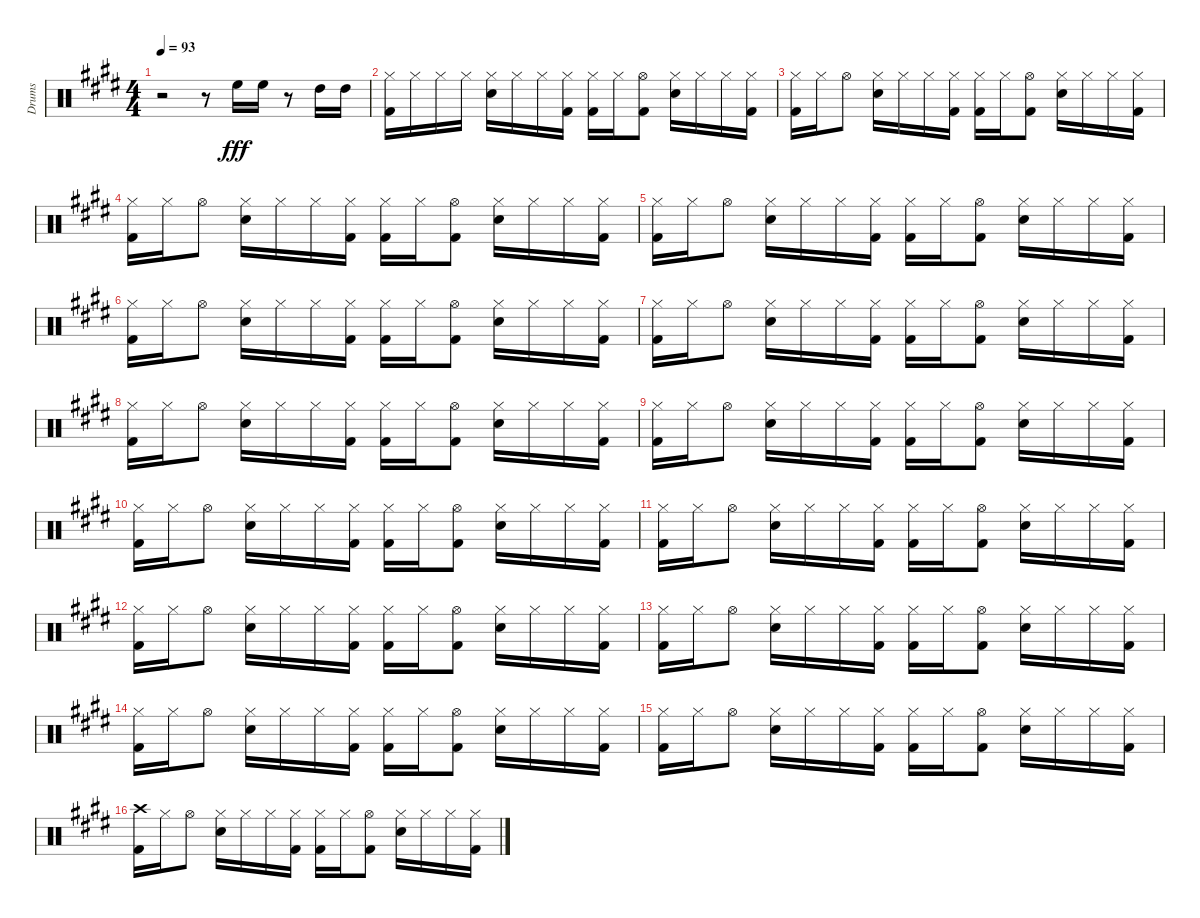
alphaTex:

\track ("Drums" "Drums") {instrument percussion}
\staff {score}
\articulation defaults
\ts (4 4)
\tempo 93
\clef neutral
\ks e
r.2{dy fff} r.8 "High Floor Tom (hit)".16 "High Floor Tom (hit)".16 r.8 "High Tom (hit)".16 "High Tom (hit)".16 |
("Hi-Hat (closed)" "Kick (hit) 2").16 "Hi-Hat (closed)".16 "Hi-Hat (closed)".16 "Hi-Hat (closed)".16 ("Hi-Hat (closed)" "Electric Snare (hit)").16 "Hi-Hat (closed)".16 "Hi-Hat (closed)".16 ("Hi-Hat (closed)" "Kick (hit) 2").16 ("Hi-Hat (closed)" "Kick (hit) 2").16 "Hi-Hat (closed)".16 ("Hi-Hat (open)" "Kick (hit) 2").8 ("Hi-Hat (closed)" "Electric Snare (hit)").16 "Hi-Hat (closed)".16 "Hi-Hat (closed)".16 ("Hi-Hat (closed)" "Kick (hit) 2").16 |
("Hi-Hat (closed)" "Kick (hit) 2").16 "Hi-Hat (closed)".16 "Hi-Hat (open)".8 ("Hi-Hat (closed)" "Electric Snare (hit)").16 "Hi-Hat (closed)".16 "Hi-Hat (closed)".16 ("Hi-Hat (closed)" "Kick (hit) 2").16 ("Hi-Hat (closed)" "Kick (hit) 2").16 "Hi-Hat (closed)".16 ("Hi-Hat (open)" "Kick (hit) 2").8 ("Hi-Hat (closed)" "Electric Snare (hit)").16 "Hi-Hat (closed)".16 "Hi-Hat (closed)".16 ("Hi-Hat (closed)" "Kick (hit) 2").16 |
("Hi-Hat (closed)" "Kick (hit) 2").16 "Hi-Hat (closed)".16 "Hi-Hat (open)".8 ("Hi-Hat (closed)" "Electric Snare (hit)").16 "Hi-Hat (closed)".16 "Hi-Hat (closed)".16 ("Hi-Hat (closed)" "Kick (hit) 2").16 ("Hi-Hat (closed)" "Kick (hit) 2").16 "Hi-Hat (closed)".16 ("Hi-Hat (open)" "Kick (hit) 2").8 ("Hi-Hat (closed)" "Electric Snare (hit)").16 "Hi-Hat (closed)".16 "Hi-Hat (closed)".16 ("Hi-Hat (closed)" "Kick (hit) 2").16 |
("Hi-Hat (closed)" "Kick (hit) 2").16 "Hi-Hat (closed)".16 "Hi-Hat (open)".8 ("Hi-Hat (closed)" "Electric Snare (hit)").16 "Hi-Hat (closed)".16 "Hi-Hat (closed)".16 ("Hi-Hat (closed)" "Kick (hit) 2").16 ("Hi-Hat (closed)" "Kick (hit) 2").16 "Hi-Hat (closed)".16 ("Hi-Hat (open)" "Kick (hit) 2").8 ("Hi-Hat (closed)" "Electric Snare (hit)").16 "Hi-Hat (closed)".16 "Hi-Hat (closed)".16 ("Hi-Hat (closed)" "Kick (hit) 2").16 |
("Hi-Hat (closed)" "Kick (hit) 2").16 "Hi-Hat (closed)".16 "Hi-Hat (open)".8 ("Hi-Hat (closed)" "Electric Snare (hit)").16 "Hi-Hat (closed)".16 "Hi-Hat (closed)".16 ("Hi-Hat (closed)" "Kick (hit) 2").16 ("Hi-Hat (closed)" "Kick (hit) 2").16 "Hi-Hat (closed)".16 ("Hi-Hat (open)" "Kick (hit) 2").8 ("Hi-Hat (closed)" "Electric Snare (hit)").16 "Hi-Hat (closed)".16 "Hi-Hat (closed)".16 ("Hi-Hat (closed)" "Kick (hit) 2").16 |
("Hi-Hat (closed)" "Kick (hit) 2").16 "Hi-Hat (closed)".16 "Hi-Hat (open)".8 ("Hi-Hat (closed)" "Electric Snare (hit)").16 "Hi-Hat (closed)".16 "Hi-Hat (closed)".16 ("Hi-Hat (closed)" "Kick (hit) 2").16 ("Hi-Hat (closed)" "Kick (hit) 2").16 "Hi-Hat (closed)".16 ("Hi-Hat (open)" "Kick (hit) 2").8 ("Hi-Hat (closed)" "Electric Snare (hit)").16 "Hi-Hat (closed)".16 "Hi-Hat (closed)".16 ("Hi-Hat (closed)" "Kick (hit) 2").16 |
("Hi-Hat (closed)" "Kick (hit) 2").16 "Hi-Hat (closed)".16 "Hi-Hat (open)".8 ("Hi-Hat (closed)" "Electric Snare (hit)").16 "Hi-Hat (closed)".16 "Hi-Hat (closed)".16 ("Hi-Hat (closed)" "Kick (hit) 2").16 ("Hi-Hat (closed)" "Kick (hit) 2").16 "Hi-Hat (closed)".16 ("Hi-Hat (open)" "Kick (hit) 2").8 ("Hi-Hat (closed)" "Electric Snare (hit)").16 "Hi-Hat (closed)".16 "Hi-Hat (closed)".16 ("Hi-Hat (closed)" "Kick (hit) 2").16 |
("Hi-Hat (closed)" "Kick (hit) 2").16 "Hi-Hat (closed)".16 "Hi-Hat (open)".8 ("Hi-Hat (closed)" "Electric Snare (hit)").16 "Hi-Hat (closed)".16 "Hi-Hat (closed)".16 ("Hi-Hat (closed)" "Kick (hit) 2").16 ("Hi-Hat (closed)" "Kick (hit) 2").16 "Hi-Hat (closed)".16 ("Hi-Hat (open)" "Kick (hit) 2").8 ("Hi-Hat (closed)" "Electric Snare (hit)").16 "Hi-Hat (closed)".16 "Hi-Hat (closed)".16 ("Hi-Hat (closed)" "Kick (hit) 2").16 |
("Hi-Hat (closed)" "Kick (hit) 2").16 "Hi-Hat (closed)".16 "Hi-Hat (open)".8 ("Hi-Hat (closed)" "Electric Snare (hit)").16 "Hi-Hat (closed)".16 "Hi-Hat (closed)".16 ("Hi-Hat (closed)" "Kick (hit) 2").16 ("Hi-Hat (closed)" "Kick (hit) 2").16 "Hi-Hat (closed)".16 ("Hi-Hat (open)" "Kick (hit) 2").8 ("Hi-Hat (closed)" "Electric Snare (hit)").16 "Hi-Hat (closed)".16 "Hi-Hat (closed)".16 ("Hi-Hat (closed)" "Kick (hit) 2").16 |
("Hi-Hat (closed)" "Kick (hit) 2").16 "Hi-Hat (closed)".16 "Hi-Hat (open)".8 ("Hi-Hat (closed)" "Electric Snare (hit)").16 "Hi-Hat (closed)".16 "Hi-Hat (closed)".16 ("Hi-Hat (closed)" "Kick (hit) 2").16 ("Hi-Hat (closed)" "Kick (hit) 2").16 "Hi-Hat (closed)".16 ("Hi-Hat (open)" "Kick (hit) 2").8 ("Hi-Hat (closed)" "Electric Snare (hit)").16 "Hi-Hat (closed)".16 "Hi-Hat (closed)".16 ("Hi-Hat (closed)" "Kick (hit) 2").16 |
("Hi-Hat (closed)" "Kick (hit) 2").16 "Hi-Hat (closed)".16 "Hi-Hat (open)".8 ("Hi-Hat (closed)" "Electric Snare (hit)").16 "Hi-Hat (closed)".16 "Hi-Hat (closed)".16 ("Hi-Hat (closed)" "Kick (hit) 2").16 ("Hi-Hat (closed)" "Kick (hit) 2").16 "Hi-Hat (closed)".16 ("Hi-Hat (open)" "Kick (hit) 2").8 ("Hi-Hat (closed)" "Electric Snare (hit)").16 "Hi-Hat (closed)".16 "Hi-Hat (closed)".16 ("Hi-Hat (closed)" "Kick (hit) 2").16 |
("Hi-Hat (closed)" "Kick (hit) 2").16 "Hi-Hat (closed)".16 "Hi-Hat (open)".8 ("Hi-Hat (closed)" "Electric Snare (hit)").16 "Hi-Hat (closed)".16 "Hi-Hat (closed)".16 ("Hi-Hat (closed)" "Kick (hit) 2").16 ("Hi-Hat (closed)" "Kick (hit) 2").16 "Hi-Hat (closed)".16 ("Hi-Hat (open)" "Kick (hit) 2").8 ("Hi-Hat (closed)" "Electric Snare (hit)").16 "Hi-Hat (closed)".16 "Hi-Hat (closed)".16 ("Hi-Hat (closed)" "Kick (hit) 2").16 |
("Hi-Hat (closed)" "Kick (hit) 2").16 "Hi-Hat (closed)".16 "Hi-Hat (open)".8 ("Hi-Hat (closed)" "Electric Snare (hit)").16 "Hi-Hat (closed)".16 "Hi-Hat (closed)".16 ("Hi-Hat (closed)" "Kick (hit) 2").16 ("Hi-Hat (closed)" "Kick (hit) 2").16 "Hi-Hat (closed)".16 ("Hi-Hat (open)" "Kick (hit) 2").8 ("Hi-Hat (closed)" "Electric Snare (hit)").16 "Hi-Hat (closed)".16 "Hi-Hat (closed)".16 ("Hi-Hat (closed)" "Kick (hit) 2").16 |
("Hi-Hat (closed)" "Kick (hit) 2").16 "Hi-Hat (closed)".16 "Hi-Hat (open)".8 ("Hi-Hat (closed)" "Electric Snare (hit)").16 "Hi-Hat (closed)".16 "Hi-Hat (closed)".16 ("Hi-Hat (closed)" "Kick (hit) 2").16 ("Hi-Hat (closed)" "Kick (hit) 2").16 "Hi-Hat (closed)".16 ("Hi-Hat (open)" "Kick (hit) 2").8 ("Hi-Hat (closed)" "Electric Snare (hit)").16 "Hi-Hat (closed)".16 "Hi-Hat (closed)".16 ("Hi-Hat (closed)" "Kick (hit) 2").16 |
("Crash high (hit)" "Kick (hit) 2").16 "Hi-Hat (closed)".16 "Hi-Hat (open)".8 ("Hi-Hat (closed)" "Electric Snare (hit)").16 "Hi-Hat (closed)".16 "Hi-Hat (closed)".16 ("Hi-Hat (closed)" "Kick (hit) 2").16 ("Hi-Hat (closed)" "Kick (hit) 2").16 "Hi-Hat (closed)".16 ("Hi-Hat (open)" "Kick (hit) 2").8 ("Hi-Hat (closed)" "Electric Snare (hit)").16 "Hi-Hat (closed)".16 "Hi-Hat (closed)".16 ("Hi-Hat (closed)" "Kick (hit) 2").16
